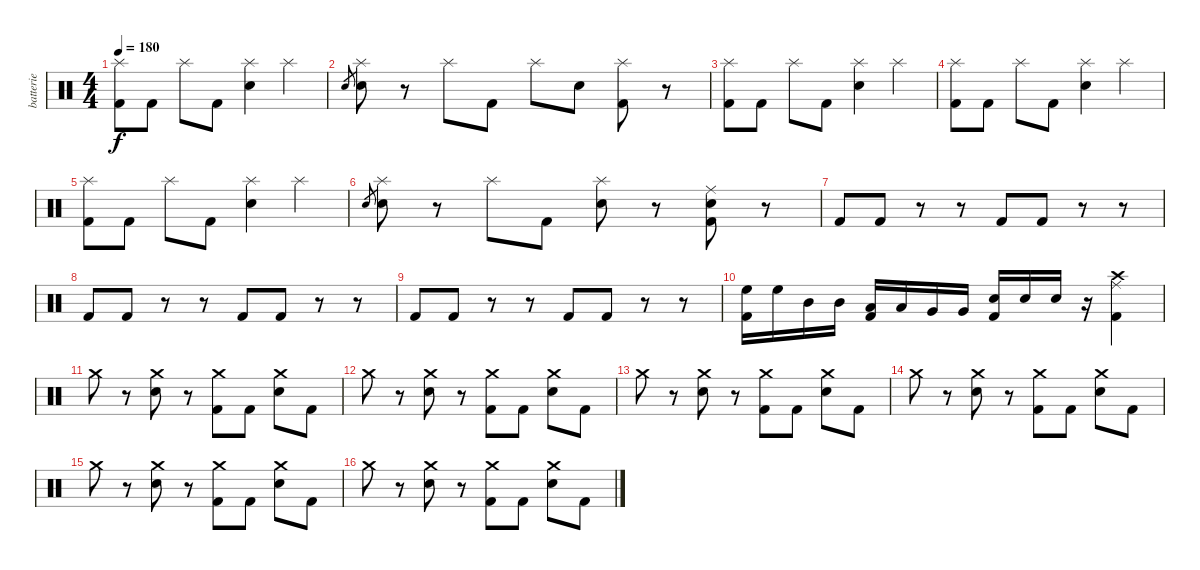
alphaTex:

\track ("batterie" "batterie") {instrument percussion}
\staff {score}
\articulation defaults
\ts (4 4)
\tempo 180
\clef neutral
\ks c
("Splash (hit)" "Kick (hit) 2").8{dy f} "Kick (hit) 2".8 "Splash (hit)".8 "Kick (hit) 2".8 ("Splash (hit)" "Electric Snare (hit)").4 "Splash (hit)".4 |
"Electric Snare (hit)".8{gr} ("Splash (hit)" "Electric Snare (hit)").8 r.8 "Splash (hit)".8 "Kick (hit) 2".8 "Splash (hit)".8 "Electric Snare (hit)".8 ("Splash (hit)" "Kick (hit) 2").8 r.8 |
("Splash (hit)" "Kick (hit) 2").8 "Kick (hit) 2".8 "Splash (hit)".8 "Kick (hit) 2".8 ("Splash (hit)" "Electric Snare (hit)").4 "Splash (hit)".4 |
("Splash (hit)" "Kick (hit) 2").8 "Kick (hit) 2".8 "Splash (hit)".8 "Kick (hit) 2".8 ("Splash (hit)" "Electric Snare (hit)").4 "Splash (hit)".4 |
("Splash (hit)" "Kick (hit) 2").8 "Kick (hit) 2".8 "Splash (hit)".8 "Kick (hit) 2".8 ("Splash (hit)" "Electric Snare (hit)").4 "Splash (hit)".4 |
"Electric Snare (hit)".8{gr} ("Splash (hit)" "Electric Snare (hit)").8 r.8 "Splash (hit)".8 "Kick (hit) 2".8 ("Splash (hit)" "Electric Snare (hit)").8 r.8 ("Ride (middle)" "Electric Snare (hit)" "Kick (hit) 2").8 r.8 |
"Kick (hit) 2".8 "Kick (hit) 2".8 r.8 r.8 "Kick (hit) 2".8 "Kick (hit) 2".8 r.8 r.8 |
"Kick (hit) 2".8 "Kick (hit) 2".8 r.8 r.8 "Kick (hit) 2".8 "Kick (hit) 2".8 r.8 r.8 |
"Kick (hit) 2".8 "Kick (hit) 2".8 r.8 r.8 "Kick (hit) 2".8 "Kick (hit) 2".8 r.8 r.8 |
("High Floor Tom (hit)" "Kick (hit) 2").16 "High Floor Tom (hit)".16 "Mid Tom (hit)".16 "Mid Tom (hit)".16 ("Low Tom (hit)" "Kick (hit) 2").16 "Low Tom (hit)".16 "Very Low Tom (hit)".16 "Very Low Tom (hit)".16 ("Snare (hit) 2" "Kick (hit) 2").16 "Snare (hit) 2".16 "Snare (hit) 2".16 r.16 ("Crash high (hit)" "Ride (middle)" "Kick (hit) 2").4 |
"Crash medium (hit)".8 r.8 ("Crash medium (hit)" "Electric Snare (hit)").8 r.8 ("Crash medium (hit)" "Kick (hit) 2").8 "Kick (hit) 2".8 ("Crash medium (hit)" "Electric Snare (hit)").8 "Kick (hit) 2".8 |
"Crash medium (hit)".8 r.8 ("Crash medium (hit)" "Electric Snare (hit)").8 r.8 ("Crash medium (hit)" "Kick (hit) 2").8 "Kick (hit) 2".8 ("Crash medium (hit)" "Electric Snare (hit)").8 "Kick (hit) 2".8 |
"Crash medium (hit)".8 r.8 ("Crash medium (hit)" "Electric Snare (hit)").8 r.8 ("Crash medium (hit)" "Kick (hit) 2").8 "Kick (hit) 2".8 ("Crash medium (hit)" "Electric Snare (hit)").8 "Kick (hit) 2".8 |
"Crash medium (hit)".8 r.8 ("Crash medium (hit)" "Electric Snare (hit)").8 r.8 ("Crash medium (hit)" "Kick (hit) 2").8 "Kick (hit) 2".8 ("Crash medium (hit)" "Electric Snare (hit)").8 "Kick (hit) 2".8 |
"Crash medium (hit)".8 r.8 ("Crash medium (hit)" "Electric Snare (hit)").8 r.8 ("Crash medium (hit)" "Kick (hit) 2").8 "Kick (hit) 2".8 ("Crash medium (hit)" "Electric Snare (hit)").8 "Kick (hit) 2".8 |
"Crash medium (hit)".8 r.8 ("Crash medium (hit)" "Electric Snare (hit)").8 r.8 ("Crash medium (hit)" "Kick (hit) 2").8 "Kick (hit) 2".8 ("Crash medium (hit)" "Electric Snare (hit)").8 "Kick (hit) 2".8
